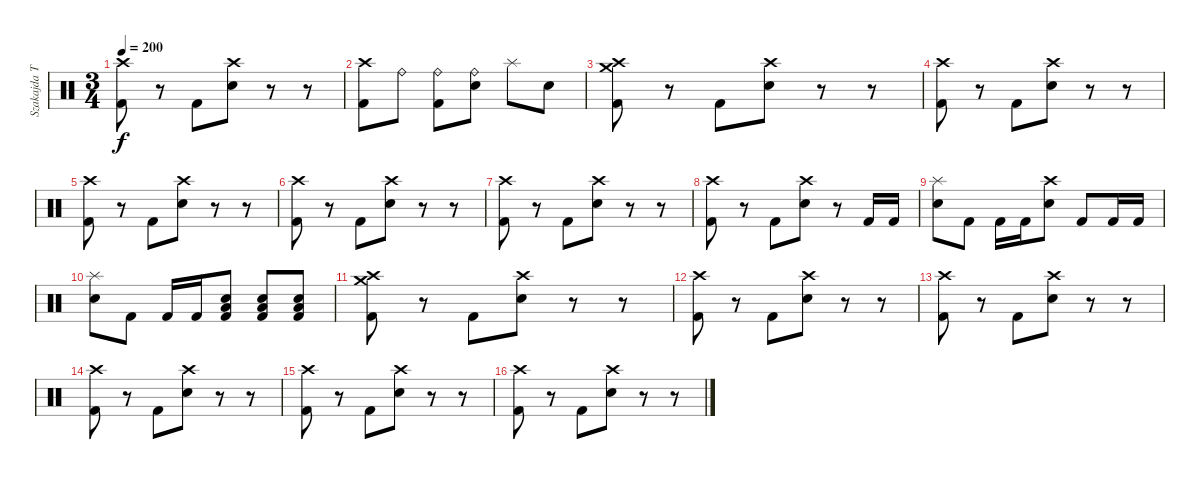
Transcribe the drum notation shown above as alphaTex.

\track ("Szakajda Tibi" "Szakajda T") {instrument percussion}
\staff {score}
\articulation defaults
\ts (3 4)
\tempo 200
\clef neutral
\ks c
("Crash high (hit)" "Kick (hit) 2").8{dy f} r.8 "Kick (hit) 2".8 ("Crash high (hit)" "Electric Snare (hit)").8 r.8 r.8 |
("Crash high (hit)" "Kick (hit) 2").8 "Ride (bell)".8 ("Ride (bell)" "Kick (hit) 2").8 ("Ride (bell)" "Electric Snare (hit)").8 "Splash (hit)".8 "Electric Snare (hit)".8 |
("Crash high (hit)" "Crash medium (hit)" "Kick (hit) 2").8 r.8 "Kick (hit) 2".8 ("Crash high (hit)" "Electric Snare (hit)").8 r.8 r.8 |
("Crash high (hit)" "Kick (hit) 2").8 r.8 "Kick (hit) 2".8 ("Crash high (hit)" "Electric Snare (hit)").8 r.8 r.8 |
("Crash high (hit)" "Kick (hit) 2").8 r.8 "Kick (hit) 2".8 ("Crash high (hit)" "Electric Snare (hit)").8 r.8 r.8 |
("Crash high (hit)" "Kick (hit) 2").8 r.8 "Kick (hit) 2".8 ("Crash high (hit)" "Electric Snare (hit)").8 r.8 r.8 |
("Crash high (hit)" "Kick (hit) 2").8 r.8 "Kick (hit) 2".8 ("Crash high (hit)" "Electric Snare (hit)").8 r.8 r.8 |
("Crash high (hit)" "Kick (hit) 2").8 r.8 "Kick (hit) 2".8 ("Crash high (hit)" "Electric Snare (hit)").8 r.8 "Kick (hit) 2".16 "Kick (hit) 2".16 |
("Splash (hit)" "Electric Snare (hit)").8 "Kick (hit) 2".8 "Kick (hit) 2".16 "Kick (hit) 2".16 ("Crash high (hit)" "Electric Snare (hit)").8 "Kick (hit) 2".8 "Kick (hit) 2".16 "Kick (hit) 2".16 |
("Splash (hit)" "Electric Snare (hit)").8 "Kick (hit) 2".8 "Kick (hit) 2".16 "Kick (hit) 2".16 ("Low Floor Tom (hit)" "Electric Snare (hit)" "Kick (hit) 2").8 ("Low Floor Tom (hit)" "Electric Snare (hit)" "Kick (hit) 2").8 ("Low Floor Tom (hit)" "Electric Snare (hit)" "Kick (hit) 2").8 |
("Crash high (hit)" "Crash medium (hit)" "Kick (hit) 2").8 r.8 "Kick (hit) 2".8 ("Crash high (hit)" "Electric Snare (hit)").8 r.8 r.8 |
("Crash high (hit)" "Kick (hit) 2").8 r.8 "Kick (hit) 2".8 ("Crash high (hit)" "Electric Snare (hit)").8 r.8 r.8 |
("Crash high (hit)" "Kick (hit) 2").8 r.8 "Kick (hit) 2".8 ("Crash high (hit)" "Electric Snare (hit)").8 r.8 r.8 |
("Crash high (hit)" "Kick (hit) 2").8 r.8 "Kick (hit) 2".8 ("Crash high (hit)" "Electric Snare (hit)").8 r.8 r.8 |
("Crash high (hit)" "Kick (hit) 2").8 r.8 "Kick (hit) 2".8 ("Crash high (hit)" "Electric Snare (hit)").8 r.8 r.8 |
("Crash high (hit)" "Kick (hit) 2").8 r.8 "Kick (hit) 2".8 ("Crash high (hit)" "Electric Snare (hit)").8 r.8 r.8
